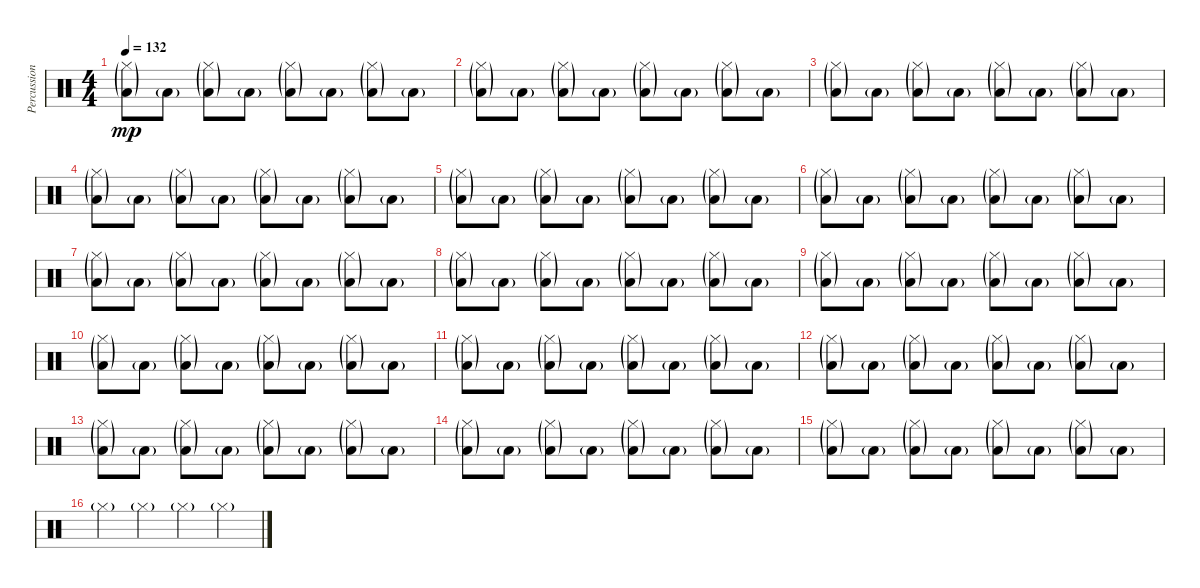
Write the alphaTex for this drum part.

\track ("Percussions" "Percussion") {instrument percussion}
\staff {score}
\articulation defaults
\ts (4 4)
\tempo 132
\clef neutral
\ks c
("Hi-Hat (closed)"{g} "Low Floor Tom (hit)"{g}).8{dy mp} "Low Floor Tom (hit)"{g}.8 ("Hi-Hat (closed)"{g} "Low Floor Tom (hit)"{g}).8 "Low Floor Tom (hit)"{g}.8 ("Hi-Hat (closed)"{g} "Low Floor Tom (hit)"{g}).8 "Low Floor Tom (hit)"{g}.8 ("Hi-Hat (closed)"{g} "Low Floor Tom (hit)"{g}).8 "Low Floor Tom (hit)"{g}.8 |
("Hi-Hat (closed)"{g} "Low Floor Tom (hit)"{g}).8 "Low Floor Tom (hit)"{g}.8 ("Hi-Hat (closed)"{g} "Low Floor Tom (hit)"{g}).8 "Low Floor Tom (hit)"{g}.8 ("Hi-Hat (closed)"{g} "Low Floor Tom (hit)"{g}).8 "Low Floor Tom (hit)"{g}.8 ("Hi-Hat (closed)"{g} "Low Floor Tom (hit)"{g}).8 "Low Floor Tom (hit)"{g}.8 |
("Hi-Hat (closed)"{g} "Low Floor Tom (hit)"{g}).8 "Low Floor Tom (hit)"{g}.8 ("Hi-Hat (closed)"{g} "Low Floor Tom (hit)"{g}).8 "Low Floor Tom (hit)"{g}.8 ("Hi-Hat (closed)"{g} "Low Floor Tom (hit)"{g}).8 "Low Floor Tom (hit)"{g}.8 ("Hi-Hat (closed)"{g} "Low Floor Tom (hit)"{g}).8 "Low Floor Tom (hit)"{g}.8 |
("Hi-Hat (closed)"{g} "Low Floor Tom (hit)"{g}).8 "Low Floor Tom (hit)"{g}.8 ("Hi-Hat (closed)"{g} "Low Floor Tom (hit)"{g}).8 "Low Floor Tom (hit)"{g}.8 ("Hi-Hat (closed)"{g} "Low Floor Tom (hit)"{g}).8 "Low Floor Tom (hit)"{g}.8 ("Hi-Hat (closed)"{g} "Low Floor Tom (hit)"{g}).8 "Low Floor Tom (hit)"{g}.8 |
("Hi-Hat (closed)"{g} "Low Floor Tom (hit)"{g}).8 "Low Floor Tom (hit)"{g}.8 ("Hi-Hat (closed)"{g} "Low Floor Tom (hit)"{g}).8 "Low Floor Tom (hit)"{g}.8 ("Hi-Hat (closed)"{g} "Low Floor Tom (hit)"{g}).8 "Low Floor Tom (hit)"{g}.8 ("Hi-Hat (closed)"{g} "Low Floor Tom (hit)"{g}).8 "Low Floor Tom (hit)"{g}.8 |
("Hi-Hat (closed)"{g} "Low Floor Tom (hit)"{g}).8 "Low Floor Tom (hit)"{g}.8 ("Hi-Hat (closed)"{g} "Low Floor Tom (hit)"{g}).8 "Low Floor Tom (hit)"{g}.8 ("Hi-Hat (closed)"{g} "Low Floor Tom (hit)"{g}).8 "Low Floor Tom (hit)"{g}.8 ("Hi-Hat (closed)"{g} "Low Floor Tom (hit)"{g}).8 "Low Floor Tom (hit)"{g}.8 |
("Hi-Hat (closed)"{g} "Low Floor Tom (hit)"{g}).8 "Low Floor Tom (hit)"{g}.8 ("Hi-Hat (closed)"{g} "Low Floor Tom (hit)"{g}).8 "Low Floor Tom (hit)"{g}.8 ("Hi-Hat (closed)"{g} "Low Floor Tom (hit)"{g}).8 "Low Floor Tom (hit)"{g}.8 ("Hi-Hat (closed)"{g} "Low Floor Tom (hit)"{g}).8 "Low Floor Tom (hit)"{g}.8 |
("Hi-Hat (closed)"{g} "Low Floor Tom (hit)"{g}).8 "Low Floor Tom (hit)"{g}.8 ("Hi-Hat (closed)"{g} "Low Floor Tom (hit)"{g}).8 "Low Floor Tom (hit)"{g}.8 ("Hi-Hat (closed)"{g} "Low Floor Tom (hit)"{g}).8 "Low Floor Tom (hit)"{g}.8 ("Hi-Hat (closed)"{g} "Low Floor Tom (hit)"{g}).8 "Low Floor Tom (hit)"{g}.8 |
("Hi-Hat (closed)"{g} "Low Floor Tom (hit)"{g}).8 "Low Floor Tom (hit)"{g}.8 ("Hi-Hat (closed)"{g} "Low Floor Tom (hit)"{g}).8 "Low Floor Tom (hit)"{g}.8 ("Hi-Hat (closed)"{g} "Low Floor Tom (hit)"{g}).8 "Low Floor Tom (hit)"{g}.8 ("Hi-Hat (closed)"{g} "Low Floor Tom (hit)"{g}).8 "Low Floor Tom (hit)"{g}.8 |
("Hi-Hat (closed)"{g} "Low Floor Tom (hit)"{g}).8 "Low Floor Tom (hit)"{g}.8 ("Hi-Hat (closed)"{g} "Low Floor Tom (hit)"{g}).8 "Low Floor Tom (hit)"{g}.8 ("Hi-Hat (closed)"{g} "Low Floor Tom (hit)"{g}).8 "Low Floor Tom (hit)"{g}.8 ("Hi-Hat (closed)"{g} "Low Floor Tom (hit)"{g}).8 "Low Floor Tom (hit)"{g}.8 |
("Hi-Hat (closed)"{g} "Low Floor Tom (hit)"{g}).8 "Low Floor Tom (hit)"{g}.8 ("Hi-Hat (closed)"{g} "Low Floor Tom (hit)"{g}).8 "Low Floor Tom (hit)"{g}.8 ("Hi-Hat (closed)"{g} "Low Floor Tom (hit)"{g}).8 "Low Floor Tom (hit)"{g}.8 ("Hi-Hat (closed)"{g} "Low Floor Tom (hit)"{g}).8 "Low Floor Tom (hit)"{g}.8 |
("Hi-Hat (closed)"{g} "Low Floor Tom (hit)"{g}).8 "Low Floor Tom (hit)"{g}.8 ("Hi-Hat (closed)"{g} "Low Floor Tom (hit)"{g}).8 "Low Floor Tom (hit)"{g}.8 ("Hi-Hat (closed)"{g} "Low Floor Tom (hit)"{g}).8 "Low Floor Tom (hit)"{g}.8 ("Hi-Hat (closed)"{g} "Low Floor Tom (hit)"{g}).8 "Low Floor Tom (hit)"{g}.8 |
("Hi-Hat (closed)"{g} "Low Floor Tom (hit)"{g}).8 "Low Floor Tom (hit)"{g}.8 ("Hi-Hat (closed)"{g} "Low Floor Tom (hit)"{g}).8 "Low Floor Tom (hit)"{g}.8 ("Hi-Hat (closed)"{g} "Low Floor Tom (hit)"{g}).8 "Low Floor Tom (hit)"{g}.8 ("Hi-Hat (closed)"{g} "Low Floor Tom (hit)"{g}).8 "Low Floor Tom (hit)"{g}.8 |
\section ("" "")
("Hi-Hat (closed)"{g} "Low Floor Tom (hit)"{g}).8 "Low Floor Tom (hit)"{g}.8 ("Hi-Hat (closed)"{g} "Low Floor Tom (hit)"{g}).8 "Low Floor Tom (hit)"{g}.8 ("Hi-Hat (closed)"{g} "Low Floor Tom (hit)"{g}).8 "Low Floor Tom (hit)"{g}.8 ("Hi-Hat (closed)"{g} "Low Floor Tom (hit)"{g}).8 "Low Floor Tom (hit)"{g}.8 |
("Hi-Hat (closed)"{g} "Low Floor Tom (hit)"{g}).8 "Low Floor Tom (hit)"{g}.8 ("Hi-Hat (closed)"{g} "Low Floor Tom (hit)"{g}).8 "Low Floor Tom (hit)"{g}.8 ("Hi-Hat (closed)"{g} "Low Floor Tom (hit)"{g}).8 "Low Floor Tom (hit)"{g}.8 ("Hi-Hat (closed)"{g} "Low Floor Tom (hit)"{g}).8 "Low Floor Tom (hit)"{g}.8 |
"Hi-Hat (closed)"{g}.4{volume 0} "Hi-Hat (closed)"{g}.4 "Hi-Hat (closed)"{g}.4 "Hi-Hat (closed)"{g}.4
